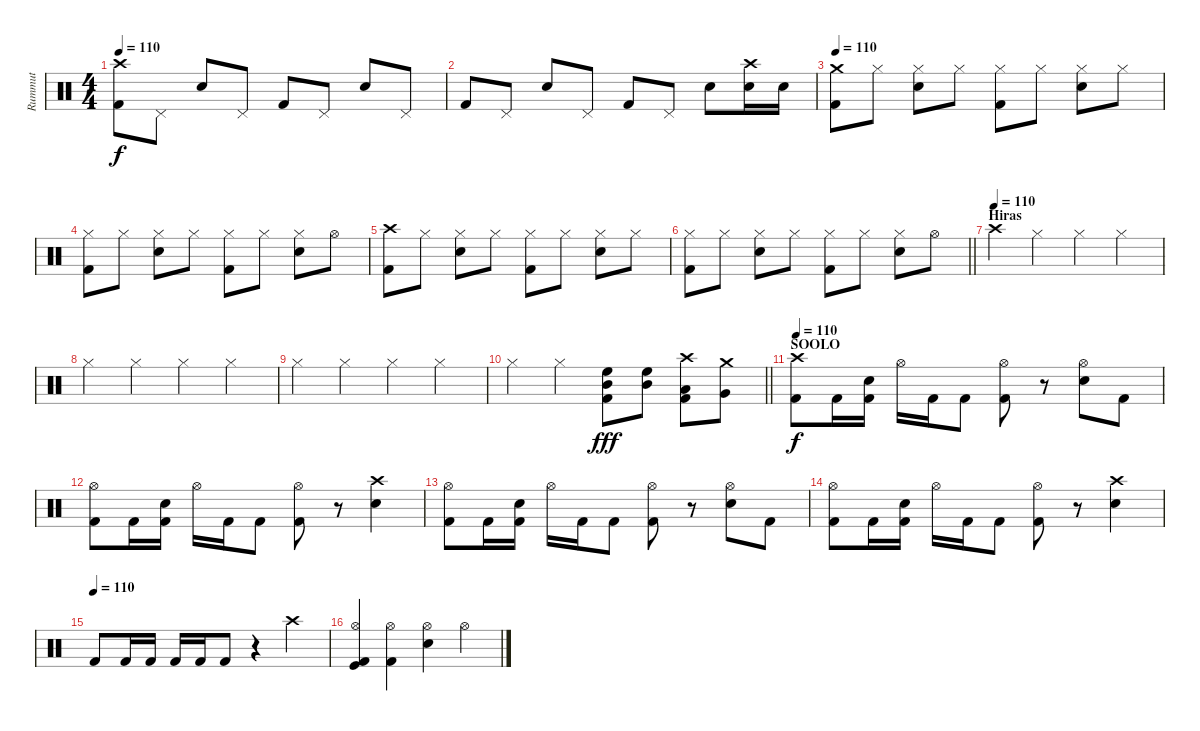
\track ("Rummut" "Rummut") {instrument percussion}
\staff {score}
\articulation defaults
\ts (4 4)
\tempo 110
\clef neutral
\ks c
("Crash high (hit)" "Kick (hit) 2").8{dy f} "Pedal Hi-Hat (hit)".8 "Snare (hit) 2".8 "Pedal Hi-Hat (hit)".8 "Kick (hit) 2".8 "Pedal Hi-Hat (hit)".8 "Snare (hit) 2".8 "Pedal Hi-Hat (hit)".8 |
"Kick (hit) 2".8 "Pedal Hi-Hat (hit)".8 "Snare (hit) 2".8 "Pedal Hi-Hat (hit)".8 "Kick (hit) 2".8 "Pedal Hi-Hat (hit)".8 "Snare (hit) 2".8 ("Crash high (hit)" "Snare (hit) 2").16 "Snare (hit) 2".16 |
\tempo 110
("Crash medium (hit)" "Kick (hit) 2").8 "Hi-Hat (closed)".8 ("Hi-Hat (closed)" "Snare (hit) 2").8 "Hi-Hat (closed)".8 ("Hi-Hat (closed)" "Kick (hit) 2").8 "Hi-Hat (closed)".8 ("Hi-Hat (closed)" "Snare (hit) 2").8 "Hi-Hat (closed)".8 |
("Hi-Hat (closed)" "Kick (hit) 2").8 "Hi-Hat (closed)".8 ("Hi-Hat (closed)" "Snare (hit) 2").8 "Hi-Hat (closed)".8 ("Hi-Hat (closed)" "Kick (hit) 2").8 "Hi-Hat (closed)".8 ("Hi-Hat (closed)" "Snare (hit) 2").8 "Hi-Hat (open)".8 |
("Crash high (hit)" "Kick (hit) 2").8 "Hi-Hat (closed)".8 ("Hi-Hat (closed)" "Snare (hit) 2").8 "Hi-Hat (closed)".8 ("Hi-Hat (closed)" "Kick (hit) 2").8 "Hi-Hat (closed)".8 ("Hi-Hat (closed)" "Snare (hit) 2").8 "Hi-Hat (closed)".8 |
\barLineRight lightlight
("Hi-Hat (closed)" "Kick (hit) 2").8 "Hi-Hat (closed)".8 ("Hi-Hat (closed)" "Snare (hit) 2").8 "Hi-Hat (closed)".8 ("Hi-Hat (closed)" "Kick (hit) 2").8 "Hi-Hat (closed)".8 ("Hi-Hat (closed)" "Snare (hit) 2").8 "Hi-Hat (open)".8 |
\section ("" "Hiras")
\tempo (110)
"Crash high (hit)".4 "Hi-Hat (closed)".4 "Hi-Hat (closed)".4 "Hi-Hat (closed)".4 |
"Hi-Hat (closed)".4 "Hi-Hat (closed)".4 "Hi-Hat (closed)".4 "Hi-Hat (closed)".4 |
"Hi-Hat (closed)".4 "Hi-Hat (closed)".4 "Hi-Hat (closed)".4 "Hi-Hat (closed)".4 |
\barLineRight lightlight "Hi-Hat (closed)".4 "Hi-Hat (closed)".4
("Mid Tom (hit)" "High Floor Tom (hit)" "Kick (hit) 2").8{dy fff} ("Mid Tom (hit)" "High Floor Tom (hit)").8 ("Low Tom (hit)" "Kick (hit) 2" "Crash high (hit)").8 ("Very Low Tom (hit)" "Crash medium (hit)").8 |
\section ("" "SOOLO")
\tempo 110
("Crash high (hit)" "Kick (hit) 2").8{dy f} "Kick (hit) 2".16 ("Snare (hit) 2" "Kick (hit) 2").16 "Hi-Hat (open)".16 "Kick (hit) 2".16 "Kick (hit) 2".8 ("Hi-Hat (open)" "Kick (hit) 2").8 r.8 ("Hi-Hat (open)" "Snare (hit) 2").8 "Kick (hit) 2".8 |
("Hi-Hat (open)" "Kick (hit) 2").8 "Kick (hit) 2".16 ("Snare (hit) 2" "Kick (hit) 2").16 "Hi-Hat (open)".16 "Kick (hit) 2".16 "Kick (hit) 2".8 ("Hi-Hat (open)" "Kick (hit) 2").8 r.8 ("Crash high (hit)" "Snare (hit) 2").4 |
("Hi-Hat (open)" "Kick (hit) 2").8 "Kick (hit) 2".16 ("Snare (hit) 2" "Kick (hit) 2").16 "Hi-Hat (open)".16 "Kick (hit) 2".16 "Kick (hit) 2".8 ("Hi-Hat (open)" "Kick (hit) 2").8 r.8 ("Hi-Hat (open)" "Snare (hit) 2").8 "Kick (hit) 2".8 |
("Hi-Hat (open)" "Kick (hit) 2").8 "Kick (hit) 2".16 ("Snare (hit) 2" "Kick (hit) 2").16 "Hi-Hat (open)".16 "Kick (hit) 2".16 "Kick (hit) 2".8 ("Hi-Hat (open)" "Kick (hit) 2").8 r.8 ("Crash high (hit)" "Snare (hit) 2").4 |
\tempo (110)
"Kick (hit) 2".8 "Kick (hit) 2".16 "Kick (hit) 2".16 "Kick (hit) 2".16 "Kick (hit) 2".16 "Kick (hit) 2".8 r.4 "Crash high (hit)".4 |
("Hi-Hat (open)" "Kick (hit) 2" "Kick (hit)").4 ("Hi-Hat (open)" "Kick (hit) 2").4 ("Hi-Hat (open)" "Snare (hit) 2").4 "Hi-Hat (open)".4
